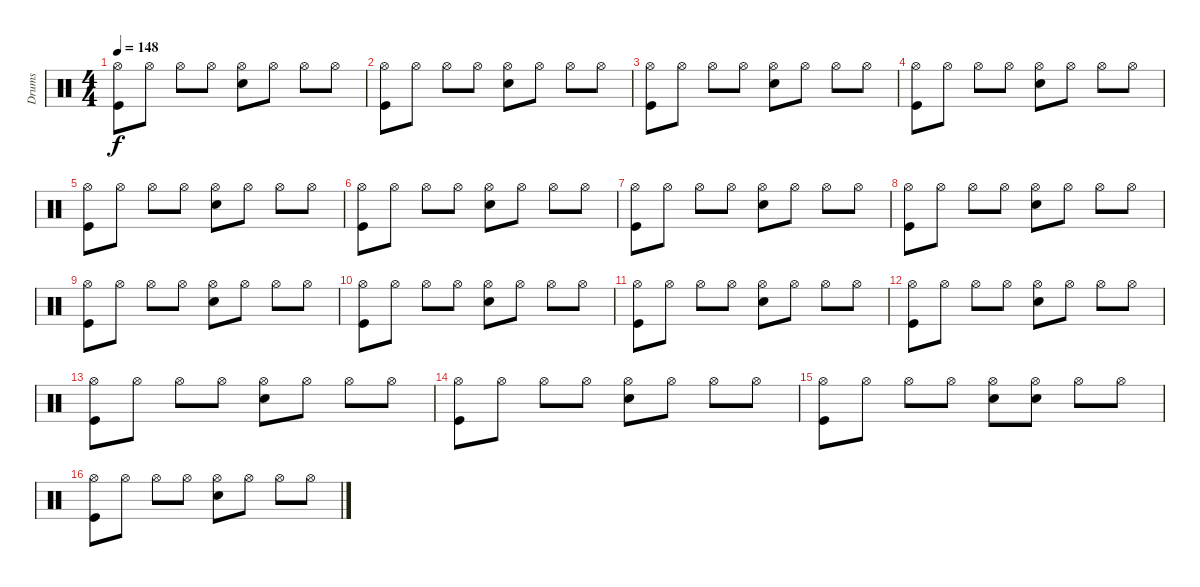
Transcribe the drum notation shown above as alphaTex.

\track ("Drums" "Drums") {instrument percussion}
\staff {score}
\articulation defaults
\ts (4 4)
\tempo 148
\clef neutral
\ks c
("Kick (hit)" "Hi-Hat (open)").8{dy f} "Hi-Hat (open)".8 "Hi-Hat (open)".8 "Hi-Hat (open)".8 ("Snare (hit) 2" "Hi-Hat (open)").8 "Hi-Hat (open)".8 "Hi-Hat (open)".8 "Hi-Hat (open)".8 |
("Hi-Hat (open)" "Kick (hit)").8 "Hi-Hat (open)".8 "Hi-Hat (open)".8 "Hi-Hat (open)".8 ("Snare (hit) 2" "Hi-Hat (open)").8 "Hi-Hat (open)".8 "Hi-Hat (open)".8 "Hi-Hat (open)".8 |
("Kick (hit)" "Hi-Hat (open)").8 "Hi-Hat (open)".8 "Hi-Hat (open)".8 "Hi-Hat (open)".8 ("Snare (hit) 2" "Hi-Hat (open)").8 "Hi-Hat (open)".8 "Hi-Hat (open)".8 "Hi-Hat (open)".8 |
("Kick (hit)" "Hi-Hat (open)").8 "Hi-Hat (open)".8 "Hi-Hat (open)".8 "Hi-Hat (open)".8 ("Snare (hit) 2" "Hi-Hat (open)").8 "Hi-Hat (open)".8 "Hi-Hat (open)".8 "Hi-Hat (open)".8 |
("Kick (hit)" "Hi-Hat (open)").8 "Hi-Hat (open)".8 "Hi-Hat (open)".8 "Hi-Hat (open)".8 ("Snare (hit) 2" "Hi-Hat (open)").8 "Hi-Hat (open)".8 "Hi-Hat (open)".8 "Hi-Hat (open)".8 |
("Hi-Hat (open)" "Kick (hit)").8 "Hi-Hat (open)".8 "Hi-Hat (open)".8 "Hi-Hat (open)".8 ("Snare (hit) 2" "Hi-Hat (open)").8 "Hi-Hat (open)".8 "Hi-Hat (open)".8 "Hi-Hat (open)".8 |
("Kick (hit)" "Hi-Hat (open)").8 "Hi-Hat (open)".8 "Hi-Hat (open)".8 "Hi-Hat (open)".8 ("Snare (hit) 2" "Hi-Hat (open)").8 "Hi-Hat (open)".8 "Hi-Hat (open)".8 "Hi-Hat (open)".8 |
("Kick (hit)" "Hi-Hat (open)").8 "Hi-Hat (open)".8 "Hi-Hat (open)".8 "Hi-Hat (open)".8 ("Snare (hit) 2" "Hi-Hat (open)").8 "Hi-Hat (open)".8 "Hi-Hat (open)".8 "Hi-Hat (open)".8 |
("Kick (hit)" "Hi-Hat (open)").8 "Hi-Hat (open)".8 "Hi-Hat (open)".8 "Hi-Hat (open)".8 ("Snare (hit) 2" "Hi-Hat (open)").8 "Hi-Hat (open)".8 "Hi-Hat (open)".8 "Hi-Hat (open)".8 |
("Hi-Hat (open)" "Kick (hit)").8 "Hi-Hat (open)".8 "Hi-Hat (open)".8 "Hi-Hat (open)".8 ("Snare (hit) 2" "Hi-Hat (open)").8 "Hi-Hat (open)".8 "Hi-Hat (open)".8 "Hi-Hat (open)".8 |
("Kick (hit)" "Hi-Hat (open)").8 "Hi-Hat (open)".8 "Hi-Hat (open)".8 "Hi-Hat (open)".8 ("Snare (hit) 2" "Hi-Hat (open)").8 "Hi-Hat (open)".8 "Hi-Hat (open)".8 "Hi-Hat (open)".8 |
("Kick (hit)" "Hi-Hat (open)").8 "Hi-Hat (open)".8 "Hi-Hat (open)".8 "Hi-Hat (open)".8 ("Snare (hit) 2" "Hi-Hat (open)").8 "Hi-Hat (open)".8 "Hi-Hat (open)".8 "Hi-Hat (open)".8 |
("Kick (hit)" "Hi-Hat (open)").8 "Hi-Hat (open)".8 "Hi-Hat (open)".8 "Hi-Hat (open)".8 ("Snare (hit) 2" "Hi-Hat (open)").8 "Hi-Hat (open)".8 "Hi-Hat (open)".8 "Hi-Hat (open)".8 |
("Hi-Hat (open)" "Kick (hit)").8 "Hi-Hat (open)".8 "Hi-Hat (open)".8 "Hi-Hat (open)".8 ("Snare (hit) 2" "Hi-Hat (open)").8 "Hi-Hat (open)".8 "Hi-Hat (open)".8 "Hi-Hat (open)".8 |
("Kick (hit)" "Hi-Hat (open)").8 "Hi-Hat (open)".8 "Hi-Hat (open)".8 "Hi-Hat (open)".8 ("Snare (hit) 2" "Hi-Hat (open)").8 ("Hi-Hat (open)" "Snare (hit) 2").8 "Hi-Hat (open)".8 "Hi-Hat (open)".8 |
("Kick (hit)" "Hi-Hat (open)").8 "Hi-Hat (open)".8 "Hi-Hat (open)".8 "Hi-Hat (open)".8 ("Snare (hit) 2" "Hi-Hat (open)").8 "Hi-Hat (open)".8 "Hi-Hat (open)".8 "Hi-Hat (open)".8
